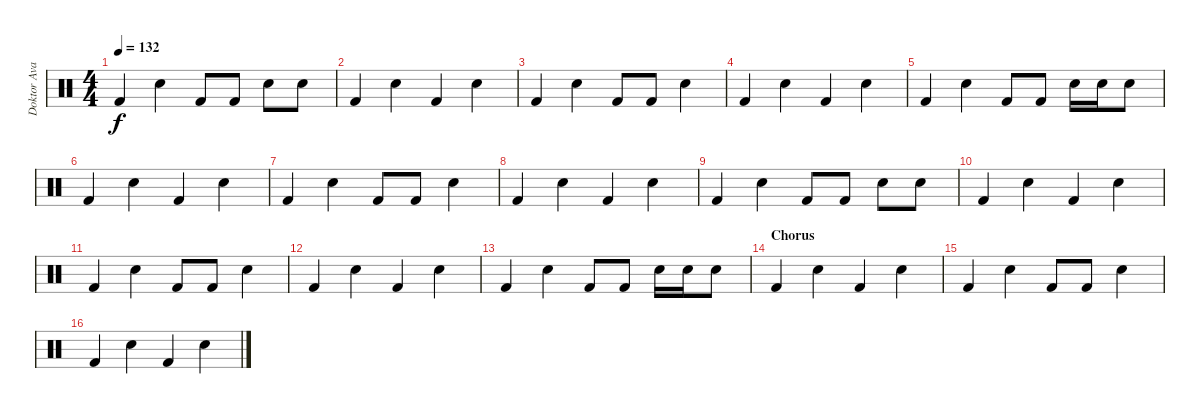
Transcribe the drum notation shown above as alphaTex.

\track ("Doktor Avalanche" "Doktor Ava") {instrument percussion}
\staff {score}
\articulation defaults
\ts (4 4)
\tempo 132
\clef neutral
\ks c "Kick (hit) 2".4{dy f} "Electric Snare (hit)".4 "Kick (hit) 2".8 "Kick (hit) 2".8 "Electric Snare (hit)".8 "Electric Snare (hit)".8
|
"Kick (hit) 2".4 "Electric Snare (hit)".4 "Kick (hit) 2".4 "Electric Snare (hit)".4 |
"Kick (hit) 2".4 "Electric Snare (hit)".4 "Kick (hit) 2".8 "Kick (hit) 2".8 "Electric Snare (hit)".4 |
"Kick (hit) 2".4 "Electric Snare (hit)".4 "Kick (hit) 2".4 "Electric Snare (hit)".4 |
"Kick (hit) 2".4 "Electric Snare (hit)".4 "Kick (hit) 2".8 "Kick (hit) 2".8 "Electric Snare (hit)".16 "Electric Snare (hit)".16 "Electric Snare (hit)".8 |
"Kick (hit) 2".4 "Electric Snare (hit)".4 "Kick (hit) 2".4 "Electric Snare (hit)".4 |
"Kick (hit) 2".4 "Electric Snare (hit)".4 "Kick (hit) 2".8 "Kick (hit) 2".8 "Electric Snare (hit)".4 |
"Kick (hit) 2".4 "Electric Snare (hit)".4 "Kick (hit) 2".4 "Electric Snare (hit)".4 |
"Kick (hit) 2".4 "Electric Snare (hit)".4 "Kick (hit) 2".8 "Kick (hit) 2".8 "Electric Snare (hit)".8 "Electric Snare (hit)".8 |
"Kick (hit) 2".4 "Electric Snare (hit)".4 "Kick (hit) 2".4 "Electric Snare (hit)".4 |
"Kick (hit) 2".4 "Electric Snare (hit)".4 "Kick (hit) 2".8 "Kick (hit) 2".8 "Electric Snare (hit)".4 |
"Kick (hit) 2".4 "Electric Snare (hit)".4 "Kick (hit) 2".4 "Electric Snare (hit)".4 |
"Kick (hit) 2".4 "Electric Snare (hit)".4 "Kick (hit) 2".8 "Kick (hit) 2".8 "Electric Snare (hit)".16 "Electric Snare (hit)".16 "Electric Snare (hit)".8 |
\section ("" "Chorus")
"Kick (hit) 2".4 "Electric Snare (hit)".4 "Kick (hit) 2".4 "Electric Snare (hit)".4 |
"Kick (hit) 2".4 "Electric Snare (hit)".4 "Kick (hit) 2".8 "Kick (hit) 2".8 "Electric Snare (hit)".4 |
"Kick (hit) 2".4 "Electric Snare (hit)".4 "Kick (hit) 2".4 "Electric Snare (hit)".4
